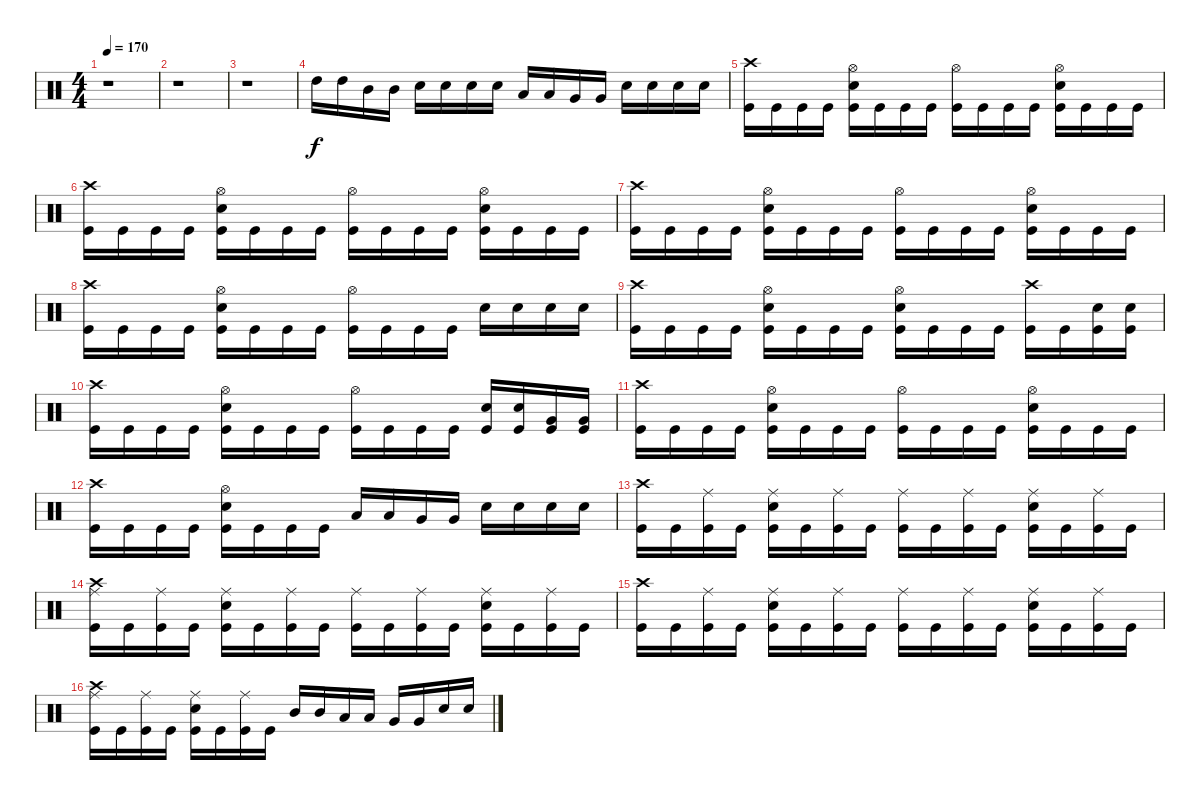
\track "" {instrument percussion}
\staff {score}
\articulation defaults
\ts (4 4)
\tempo 170
\clef neutral
\ks c
r.1{dy f} |
r.1 |
r.1 |
"High Tom (hit)".16 "High Tom (hit)".16 "Mid Tom (hit)".16 "Mid Tom (hit)".16 "Snare (hit) 2".16 "Snare (hit) 2".16 "Snare (hit) 2".16 "Snare (hit) 2".16 "Low Tom (hit)".16 "Low Tom (hit)".16 "Very Low Tom (hit)".16 "Very Low Tom (hit)".16 "Snare (hit) 2".16 "Snare (hit) 2".16 "Snare (hit) 2".16 "Snare (hit) 2".16 |
("Kick (hit)" "Crash high (hit)").16 "Kick (hit)".16 "Kick (hit)".16 "Kick (hit)".16 ("Snare (hit) 2" "Hi-Hat (open)" "Kick (hit)").16 "Kick (hit)".16 "Kick (hit)".16 "Kick (hit)".16 ("Hi-Hat (open)" "Kick (hit)").16 "Kick (hit)".16 "Kick (hit)".16 "Kick (hit)".16 ("Hi-Hat (open)" "Kick (hit)" "Snare (hit) 2").16 "Kick (hit)".16 "Kick (hit)".16 "Kick (hit)".16 |
("Kick (hit)" "Crash high (hit)").16 "Kick (hit)".16 "Kick (hit)".16 "Kick (hit)".16 ("Snare (hit) 2" "Hi-Hat (open)" "Kick (hit)").16 "Kick (hit)".16 "Kick (hit)".16 "Kick (hit)".16 ("Hi-Hat (open)" "Kick (hit)").16 "Kick (hit)".16 "Kick (hit)".16 "Kick (hit)".16 ("Hi-Hat (open)" "Kick (hit)" "Snare (hit) 2").16 "Kick (hit)".16 "Kick (hit)".16 "Kick (hit)".16 |
("Kick (hit)" "Crash high (hit)").16 "Kick (hit)".16 "Kick (hit)".16 "Kick (hit)".16 ("Snare (hit) 2" "Hi-Hat (open)" "Kick (hit)").16 "Kick (hit)".16 "Kick (hit)".16 "Kick (hit)".16 ("Hi-Hat (open)" "Kick (hit)").16 "Kick (hit)".16 "Kick (hit)".16 "Kick (hit)".16 ("Hi-Hat (open)" "Kick (hit)" "Snare (hit) 2").16 "Kick (hit)".16 "Kick (hit)".16 "Kick (hit)".16 |
("Kick (hit)" "Crash high (hit)").16 "Kick (hit)".16 "Kick (hit)".16 "Kick (hit)".16 ("Snare (hit) 2" "Hi-Hat (open)" "Kick (hit)").16 "Kick (hit)".16 "Kick (hit)".16 "Kick (hit)".16 ("Hi-Hat (open)" "Kick (hit)").16 "Kick (hit)".16 "Kick (hit)".16 "Kick (hit)".16 "Snare (hit) 2".16 "Snare (hit) 2".16 "Snare (hit) 2".16 "Snare (hit) 2".16 |
("Kick (hit)" "Crash high (hit)").16 "Kick (hit)".16 "Kick (hit)".16 "Kick (hit)".16 ("Snare (hit) 2" "Hi-Hat (open)" "Kick (hit)").16 "Kick (hit)".16 "Kick (hit)".16 "Kick (hit)".16 ("Hi-Hat (open)" "Kick (hit)" "Snare (hit) 2").16 "Kick (hit)".16 "Kick (hit)".16 "Kick (hit)".16 ("Crash high (hit)" "Kick (hit)").16 "Kick (hit)".16 ("Snare (hit) 2" "Kick (hit)").16 ("Snare (hit) 2" "Kick (hit)").16 |
("Kick (hit)" "Crash high (hit)").16 "Kick (hit)".16 "Kick (hit)".16 "Kick (hit)".16 ("Snare (hit) 2" "Hi-Hat (open)" "Kick (hit)").16 "Kick (hit)".16 "Kick (hit)".16 "Kick (hit)".16 ("Hi-Hat (open)" "Kick (hit)").16 "Kick (hit)".16 "Kick (hit)".16 "Kick (hit)".16 ("Kick (hit)" "Snare (hit) 2").16 ("Snare (hit) 2" "Kick (hit)").16 ("Very Low Tom (hit)" "Kick (hit)").16 ("Very Low Tom (hit)" "Kick (hit)").16 |
("Kick (hit)" "Crash high (hit)").16 "Kick (hit)".16 "Kick (hit)".16 "Kick (hit)".16 ("Snare (hit) 2" "Hi-Hat (open)" "Kick (hit)").16 "Kick (hit)".16 "Kick (hit)".16 "Kick (hit)".16 ("Hi-Hat (open)" "Kick (hit)").16 "Kick (hit)".16 "Kick (hit)".16 "Kick (hit)".16 ("Hi-Hat (open)" "Kick (hit)" "Snare (hit) 2").16 "Kick (hit)".16 "Kick (hit)".16 "Kick (hit)".16 |
("Kick (hit)" "Crash high (hit)").16 "Kick (hit)".16 "Kick (hit)".16 "Kick (hit)".16 ("Snare (hit) 2" "Hi-Hat (open)" "Kick (hit)").16 "Kick (hit)".16 "Kick (hit)".16 "Kick (hit)".16 "Low Tom (hit)".16 "Low Tom (hit)".16 "Very Low Tom (hit)".16 "Very Low Tom (hit)".16 "Snare (hit) 2".16 "Snare (hit) 2".16 "Snare (hit) 2".16 "Snare (hit) 2".16 |
("Crash high (hit)" "Kick (hit)").16 "Kick (hit)".16 ("Ride (middle)" "Kick (hit)").16 "Kick (hit)".16 ("Snare (hit) 2" "Ride (middle)" "Kick (hit)").16 "Kick (hit)".16 ("Kick (hit)" "Ride (middle)").16 "Kick (hit)".16 ("Ride (middle)" "Kick (hit)").16 "Kick (hit)".16 ("Ride (middle)" "Kick (hit)").16 "Kick (hit)".16 ("Snare (hit) 2" "Ride (middle)" "Kick (hit)").16 "Kick (hit)".16 ("Ride (middle)" "Kick (hit)").16 "Kick (hit)".16 |
("Ride (middle)" "Crash high (hit)" "Kick (hit)").16 "Kick (hit)".16 ("Ride (middle)" "Kick (hit)").16 "Kick (hit)".16 ("Snare (hit) 2" "Ride (middle)" "Kick (hit)").16 "Kick (hit)".16 ("Kick (hit)" "Ride (middle)").16 "Kick (hit)".16 ("Ride (middle)" "Kick (hit)").16 "Kick (hit)".16 ("Ride (middle)" "Kick (hit)").16 "Kick (hit)".16 ("Snare (hit) 2" "Ride (middle)" "Kick (hit)").16 "Kick (hit)".16 ("Ride (middle)" "Kick (hit)").16 "Kick (hit)".16 |
("Crash high (hit)" "Kick (hit)").16 "Kick (hit)".16 ("Ride (middle)" "Kick (hit)").16 "Kick (hit)".16 ("Snare (hit) 2" "Ride (middle)" "Kick (hit)").16 "Kick (hit)".16 ("Kick (hit)" "Ride (middle)").16 "Kick (hit)".16 ("Ride (middle)" "Kick (hit)").16 "Kick (hit)".16 ("Ride (middle)" "Kick (hit)").16 "Kick (hit)".16 ("Snare (hit) 2" "Ride (middle)" "Kick (hit)").16 "Kick (hit)".16 ("Ride (middle)" "Kick (hit)").16 "Kick (hit)".16 |
("Ride (middle)" "Crash high (hit)" "Kick (hit)").16 "Kick (hit)".16 ("Ride (middle)" "Kick (hit)").16 "Kick (hit)".16 ("Snare (hit) 2" "Ride (middle)" "Kick (hit)").16 "Kick (hit)".16 ("Kick (hit)" "Ride (middle)").16 "Kick (hit)".16 "Mid Tom (hit)".16 "Mid Tom (hit)".16 "Low Tom (hit)".16 "Low Tom (hit)".16 "Very Low Tom (hit)".16 "Very Low Tom (hit)".16 "Snare (hit) 2".16 "Snare (hit) 2".16
